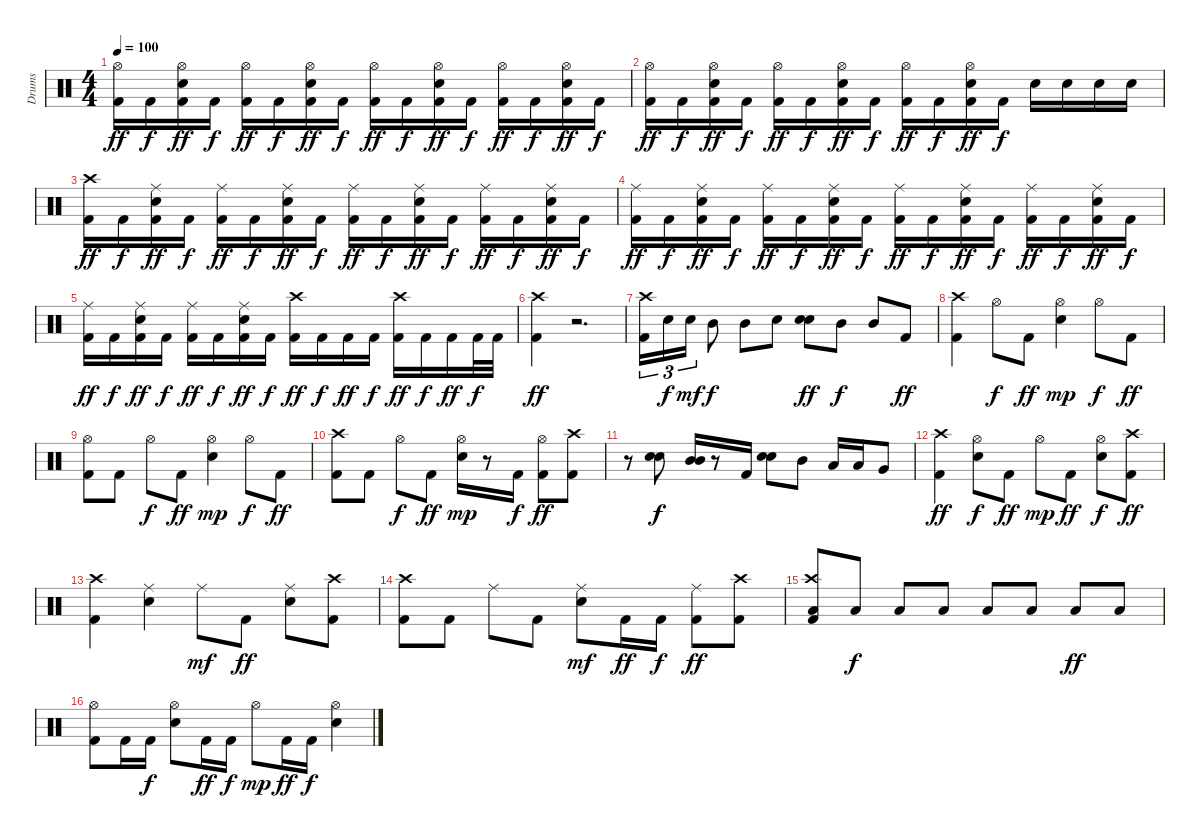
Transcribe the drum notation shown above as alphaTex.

\track ("Drums" "Drums") {instrument percussion}
\staff {score}
\articulation defaults
\ts (4 4)
\tempo 100
\clef neutral
\ks c
("Hi-Hat (open)" "Kick (hit) 2").16{dy ff} "Kick (hit) 2".16{dy f} ("Hi-Hat (open)" "Electric Snare (hit)" "Kick (hit) 2").16{dy ff} "Kick (hit) 2".16{dy f} ("Hi-Hat (open)" "Kick (hit) 2").16{dy ff} "Kick (hit) 2".16{dy f} ("Hi-Hat (open)" "Electric Snare (hit)" "Kick (hit) 2").16{dy ff} "Kick (hit) 2".16{dy f} ("Hi-Hat (open)" "Kick (hit) 2").16{dy ff} "Kick (hit) 2".16{dy f} ("Hi-Hat (open)" "Electric Snare (hit)" "Kick (hit) 2").16{dy ff} "Kick (hit) 2".16{dy f} ("Hi-Hat (open)" "Kick (hit) 2").16{dy ff} "Kick (hit) 2".16{dy f} ("Hi-Hat (open)" "Electric Snare (hit)" "Kick (hit) 2").16{dy ff} "Kick (hit) 2".16{dy f} |
("Hi-Hat (open)" "Kick (hit) 2").16{dy ff} "Kick (hit) 2".16{dy f} ("Hi-Hat (open)" "Electric Snare (hit)" "Kick (hit) 2").16{dy ff} "Kick (hit) 2".16{dy f} ("Hi-Hat (open)" "Kick (hit) 2").16{dy ff} "Kick (hit) 2".16{dy f} ("Hi-Hat (open)" "Electric Snare (hit)" "Kick (hit) 2").16{dy ff} "Kick (hit) 2".16{dy f} ("Hi-Hat (open)" "Kick (hit) 2").16{dy ff} "Kick (hit) 2".16{dy f} ("Hi-Hat (open)" "Electric Snare (hit)" "Kick (hit) 2").16{dy ff} "Kick (hit) 2".16{dy f} "Electric Snare (hit)".16 "Electric Snare (hit)".16 "Electric Snare (hit)".16 "Electric Snare (hit)".16 |
("Crash high (hit)" "Kick (hit) 2").16{dy ff} "Kick (hit) 2".16{dy f} ("Ride (middle)" "Electric Snare (hit)" "Kick (hit) 2").16{dy ff} "Kick (hit) 2".16{dy f} ("Ride (middle)" "Kick (hit) 2").16{dy ff} "Kick (hit) 2".16{dy f} ("Ride (middle)" "Electric Snare (hit)" "Kick (hit) 2").16{dy ff} "Kick (hit) 2".16{dy f} ("Ride (middle)" "Kick (hit) 2").16{dy ff} "Kick (hit) 2".16{dy f} ("Ride (middle)" "Electric Snare (hit)" "Kick (hit) 2").16{dy ff} "Kick (hit) 2".16{dy f} ("Ride (middle)" "Kick (hit) 2").16{dy ff} "Kick (hit) 2".16{dy f} ("Ride (middle)" "Electric Snare (hit)" "Kick (hit) 2").16{dy ff} "Kick (hit) 2".16{dy f} |
("Ride (middle)" "Kick (hit) 2").16{dy ff} "Kick (hit) 2".16{dy f} ("Ride (middle)" "Electric Snare (hit)" "Kick (hit) 2").16{dy ff} "Kick (hit) 2".16{dy f} ("Ride (middle)" "Kick (hit) 2").16{dy ff} "Kick (hit) 2".16{dy f} ("Ride (middle)" "Electric Snare (hit)" "Kick (hit) 2").16{dy ff} "Kick (hit) 2".16{dy f} ("Ride (middle)" "Kick (hit) 2").16{dy ff} "Kick (hit) 2".16{dy f} ("Ride (middle)" "Electric Snare (hit)" "Kick (hit) 2").16{dy ff} "Kick (hit) 2".16{dy f} ("Ride (middle)" "Kick (hit) 2").16{dy ff} "Kick (hit) 2".16{dy f} ("Ride (middle)" "Electric Snare (hit)" "Kick (hit) 2").16{dy ff} "Kick (hit) 2".16{dy f} |
("Ride (middle)" "Kick (hit) 2").16{dy ff} "Kick (hit) 2".16{dy f} ("Ride (middle)" "Electric Snare (hit)" "Kick (hit) 2").16{dy ff} "Kick (hit) 2".16{dy f} ("Ride (middle)" "Kick (hit) 2").16{dy ff} "Kick (hit) 2".16{dy f} ("Ride (middle)" "Electric Snare (hit)" "Kick (hit) 2").16{dy ff} "Kick (hit) 2".16{dy f} ("Crash high (hit)" "Kick (hit) 2").16{dy ff} "Kick (hit) 2".16{dy f} "Kick (hit) 2".16{dy ff} "Kick (hit) 2".16{dy f} ("Crash high (hit)" "Kick (hit) 2").16{dy ff} "Kick (hit) 2".16{dy f} "Kick (hit) 2".16{dy ff} "Kick (hit) 2".32{dy f} "Kick (hit) 2".32 |
("Crash high (hit)" "Kick (hit) 2").4{dy ff} r.2{d} |
("Crash high (hit)" "Kick (hit) 2").16{tu (3 2)} "Electric Snare (hit)".16{tu (3 2) dy f} "Electric Snare (hit)".16{tu (3 2) dy mf} "Mid Tom (hit)".8{dy f} "Mid Tom (hit)".8 "Electric Snare (hit)".8 ("Electric Snare (hit)" "Electric Snare (hit)").8{dy ff} "Mid Tom (hit)".8{dy f} "Mid Tom (hit)".8 "Kick (hit) 2".8{dy ff} |
("Crash high (hit)" "Kick (hit) 2").4 "Hi-Hat (open)".8{dy f} "Kick (hit) 2".8{dy ff} ("Hi-Hat (open)" "Electric Snare (hit)").4{dy mp} "Hi-Hat (open)".8{dy f} "Kick (hit) 2".8{dy ff} |
("Hi-Hat (open)" "Kick (hit) 2").8 "Kick (hit) 2".8 "Hi-Hat (open)".8{dy f} "Kick (hit) 2".8{dy ff} ("Hi-Hat (open)" "Electric Snare (hit)").4{dy mp} "Hi-Hat (open)".8{dy f} "Kick (hit) 2".8{dy ff} |
("Crash high (hit)" "Kick (hit) 2").8 "Kick (hit) 2".8 "Hi-Hat (open)".8{dy f} "Kick (hit) 2".8{dy ff} ("Hi-Hat (open)" "Electric Snare (hit)").16{dy mp} r.8 "Kick (hit) 2".16{dy f} ("Hi-Hat (open)" "Kick (hit) 2").8{dy ff} ("Crash high (hit)" "Kick (hit) 2").8 |
r.8 ("Electric Snare (hit)" "Electric Snare (hit)").8{dy f} ("Mid Tom (hit)" "Mid Tom (hit)").16 r.8 "Kick (hit) 2".16 ("Electric Snare (hit)" "Electric Snare (hit)").8 "Mid Tom (hit)".8 "Low Tom (hit)".16 "Low Tom (hit)".16 "Very Low Tom (hit)".8 |
("Crash high (hit)" "Kick (hit) 2").4{dy ff} ("Hi-Hat (open)" "Electric Snare (hit)").8{dy f} "Kick (hit) 2".8{dy ff} "Hi-Hat (open)".8{dy mp} "Kick (hit) 2".8{dy ff} ("Hi-Hat (open)" "Electric Snare (hit)").8{dy f} ("Crash high (hit)" "Kick (hit) 2").8{dy ff} |
("Crash high (hit)" "Kick (hit) 2").4 ("Ride (middle)" "Electric Snare (hit)").4 "Ride (middle)".8{dy mf} "Kick (hit) 2".8{dy ff} ("Ride (middle)" "Electric Snare (hit)").8 ("Crash high (hit)" "Kick (hit) 2").8 |
("Crash high (hit)" "Kick (hit) 2").8 "Kick (hit) 2".8 "Ride (middle)".8 "Kick (hit) 2".8 ("Ride (middle)" "Electric Snare (hit)").8{dy mf} "Kick (hit) 2".16{dy ff} "Kick (hit) 2".16{dy f} ("Ride (middle)" "Kick (hit) 2").8{dy ff} ("Crash high (hit)" "Kick (hit) 2").8 |
("Crash high (hit)" "Low Floor Tom (hit)" "Kick (hit) 2").8 "Low Floor Tom (hit)".8{dy f} "Low Floor Tom (hit)".8 "Low Floor Tom (hit)".8 "Low Floor Tom (hit)".8 "Low Floor Tom (hit)".8 "Low Floor Tom (hit)".8{dy ff} "Low Floor Tom (hit)".8 |
("Hi-Hat (open)" "Kick (hit) 2").8 "Kick (hit) 2".16 "Kick (hit) 2".16{dy f} ("Hi-Hat (open)" "Electric Snare (hit)").8 "Kick (hit) 2".16{dy ff} "Kick (hit) 2".16{dy f} "Hi-Hat (open)".8{dy mp} "Kick (hit) 2".16{dy ff} "Kick (hit) 2".16{dy f} ("Hi-Hat (open)" "Electric Snare (hit)").4
